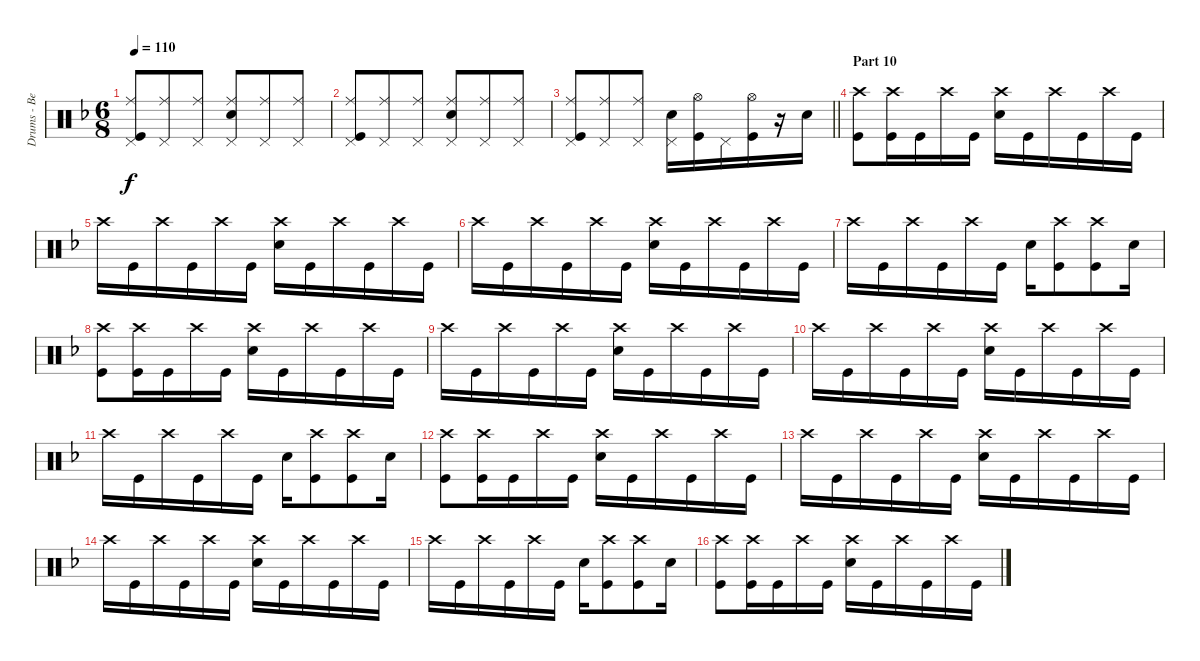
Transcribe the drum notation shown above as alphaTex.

\track ("Drums - Ben Johnston" "Drums - Be") {instrument percussion}
\staff {score}
\articulation defaults
\ts (6 8)
\tempo 110
\clef neutral
\ks dminor
("Ride (middle)" "Pedal Hi-Hat (hit)" "Kick (hit)").8{dy f} ("Ride (middle)" "Pedal Hi-Hat (hit)").8 ("Ride (middle)" "Pedal Hi-Hat (hit)").8 ("Ride (middle)" "Pedal Hi-Hat (hit)" "Snare (hit) 2").8 ("Ride (middle)" "Pedal Hi-Hat (hit)").8 ("Ride (middle)" "Pedal Hi-Hat (hit)").8 |
("Ride (middle)" "Pedal Hi-Hat (hit)" "Kick (hit)").8 ("Ride (middle)" "Pedal Hi-Hat (hit)").8 ("Ride (middle)" "Pedal Hi-Hat (hit)").8 ("Ride (middle)" "Pedal Hi-Hat (hit)" "Snare (hit) 2").8 ("Ride (middle)" "Pedal Hi-Hat (hit)").8 ("Ride (middle)" "Pedal Hi-Hat (hit)").8 |
\barLineRight lightlight
("Ride (middle)" "Pedal Hi-Hat (hit)" "Kick (hit)").8 ("Ride (middle)" "Pedal Hi-Hat (hit)").8 ("Ride (middle)" "Pedal Hi-Hat (hit)").8 ("Pedal Hi-Hat (hit)" "Snare (hit) 2").16 ("Hi-Hat (open)" "Kick (hit)").16 "Pedal Hi-Hat (hit)".16 ("Hi-Hat (open)" "Kick (hit)").16 r.16 "Snare (hit) 2".16 |
\section ("" "Part 10")
("Crash high (hit)" "Kick (hit)").8 ("Crash high (hit)" "Kick (hit)").16 "Kick (hit)".16 "Crash high (hit)".16 "Kick (hit)".16 ("Crash high (hit)" "Snare (hit) 2").16 "Kick (hit)".16 "Crash high (hit)".16 "Kick (hit)".16 "Crash high (hit)".16 "Kick (hit)".16 |
"Crash high (hit)".16 "Kick (hit)".16 "Crash high (hit)".16 "Kick (hit)".16 "Crash high (hit)".16 "Kick (hit)".16 ("Crash high (hit)" "Snare (hit) 2").16 "Kick (hit)".16 "Crash high (hit)".16 "Kick (hit)".16 "Crash high (hit)".16 "Kick (hit)".16 |
"Crash high (hit)".16 "Kick (hit)".16 "Crash high (hit)".16 "Kick (hit)".16 "Crash high (hit)".16 "Kick (hit)".16 ("Crash high (hit)" "Snare (hit) 2").16 "Kick (hit)".16 "Crash high (hit)".16 "Kick (hit)".16 "Crash high (hit)".16 "Kick (hit)".16 |
"Crash high (hit)".16 "Kick (hit)".16 "Crash high (hit)".16 "Kick (hit)".16 "Crash high (hit)".16 "Kick (hit)".16 "Snare (hit) 2".16 ("Crash high (hit)" "Kick (hit)").8 ("Crash high (hit)" "Kick (hit)").8 "Snare (hit) 2".16 |
("Crash high (hit)" "Kick (hit)").8 ("Crash high (hit)" "Kick (hit)").16 "Kick (hit)".16 "Crash high (hit)".16 "Kick (hit)".16 ("Crash high (hit)" "Snare (hit) 2").16 "Kick (hit)".16 "Crash high (hit)".16 "Kick (hit)".16 "Crash high (hit)".16 "Kick (hit)".16 |
"Crash high (hit)".16 "Kick (hit)".16 "Crash high (hit)".16 "Kick (hit)".16 "Crash high (hit)".16 "Kick (hit)".16 ("Crash high (hit)" "Snare (hit) 2").16 "Kick (hit)".16 "Crash high (hit)".16 "Kick (hit)".16 "Crash high (hit)".16 "Kick (hit)".16 |
"Crash high (hit)".16 "Kick (hit)".16 "Crash high (hit)".16 "Kick (hit)".16 "Crash high (hit)".16 "Kick (hit)".16 ("Crash high (hit)" "Snare (hit) 2").16 "Kick (hit)".16 "Crash high (hit)".16 "Kick (hit)".16 "Crash high (hit)".16 "Kick (hit)".16 |
"Crash high (hit)".16 "Kick (hit)".16 "Crash high (hit)".16 "Kick (hit)".16 "Crash high (hit)".16 "Kick (hit)".16 "Snare (hit) 2".16 ("Crash high (hit)" "Kick (hit)").8 ("Crash high (hit)" "Kick (hit)").8 "Snare (hit) 2".16 |
("Crash high (hit)" "Kick (hit)").8 ("Crash high (hit)" "Kick (hit)").16 "Kick (hit)".16 "Crash high (hit)".16 "Kick (hit)".16 ("Crash high (hit)" "Snare (hit) 2").16 "Kick (hit)".16 "Crash high (hit)".16 "Kick (hit)".16 "Crash high (hit)".16 "Kick (hit)".16 |
"Crash high (hit)".16 "Kick (hit)".16 "Crash high (hit)".16 "Kick (hit)".16 "Crash high (hit)".16 "Kick (hit)".16 ("Crash high (hit)" "Snare (hit) 2").16 "Kick (hit)".16 "Crash high (hit)".16 "Kick (hit)".16 "Crash high (hit)".16 "Kick (hit)".16 |
"Crash high (hit)".16 "Kick (hit)".16 "Crash high (hit)".16 "Kick (hit)".16 "Crash high (hit)".16 "Kick (hit)".16 ("Crash high (hit)" "Snare (hit) 2").16 "Kick (hit)".16 "Crash high (hit)".16 "Kick (hit)".16 "Crash high (hit)".16 "Kick (hit)".16 |
"Crash high (hit)".16 "Kick (hit)".16 "Crash high (hit)".16 "Kick (hit)".16 "Crash high (hit)".16 "Kick (hit)".16 "Snare (hit) 2".16 ("Crash high (hit)" "Kick (hit)").8 ("Crash high (hit)" "Kick (hit)").8 "Snare (hit) 2".16 |
("Crash high (hit)" "Kick (hit)").8 ("Crash high (hit)" "Kick (hit)").16 "Kick (hit)".16 "Crash high (hit)".16 "Kick (hit)".16 ("Crash high (hit)" "Snare (hit) 2").16 "Kick (hit)".16 "Crash high (hit)".16 "Kick (hit)".16 "Crash high (hit)".16 "Kick (hit)".16
